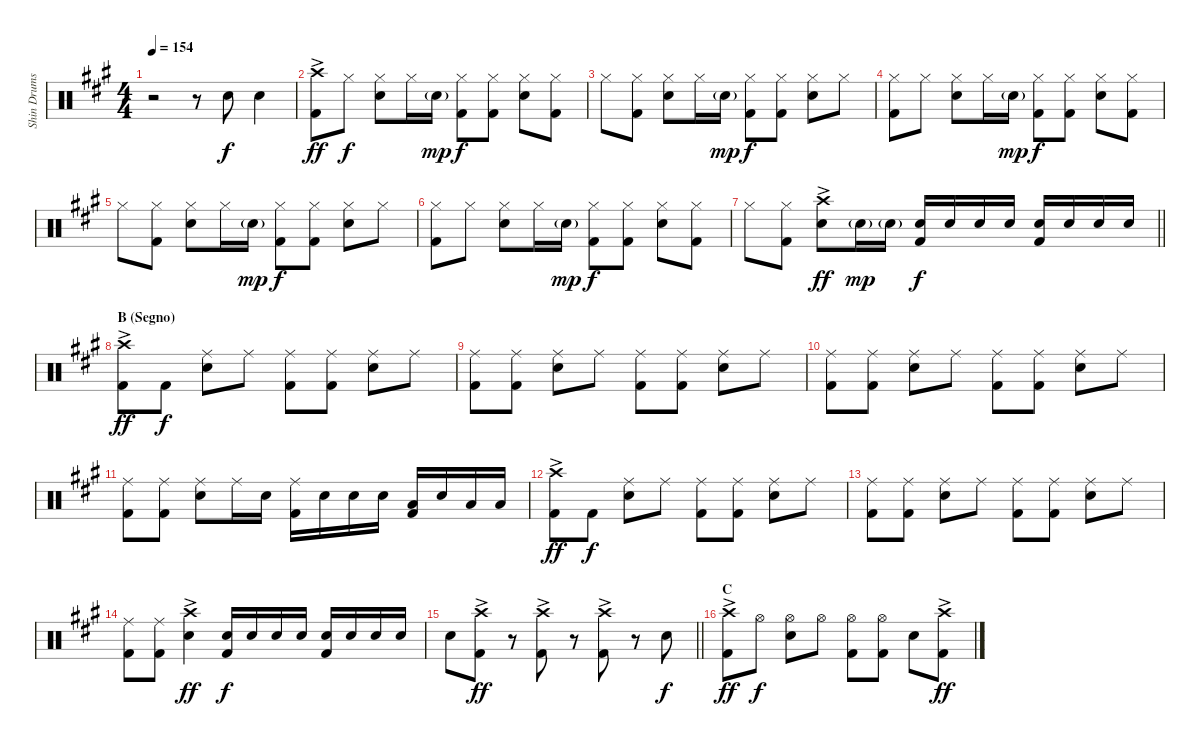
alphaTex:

\track ("Shin Drums" "Shin Drums") {instrument percussion}
\staff {score}
\articulation defaults
\ts (4 4)
\tempo 154
\clef neutral
\ks a
r.2{dy ff} r.8 "Snare (hit) 2".8{dy f} "Snare (hit) 2".4 |
("Crash high (hit)"{ac} "Kick (hit) 2").8{dy ff} "Hi-Hat (closed)".8{dy f} ("Hi-Hat (closed)" "Snare (hit) 2").8 "Hi-Hat (closed)".16 "Snare (hit) 2"{g}.16{dy mp} ("Hi-Hat (closed)" "Kick (hit) 2").8{dy f} ("Hi-Hat (closed)" "Kick (hit) 2").8 ("Hi-Hat (closed)" "Snare (hit) 2").8 ("Hi-Hat (closed)" "Kick (hit) 2").8 |
"Hi-Hat (closed)".8 ("Hi-Hat (closed)" "Kick (hit) 2").8 ("Hi-Hat (closed)" "Snare (hit) 2").8 "Hi-Hat (closed)".16 "Snare (hit) 2"{g}.16{dy mp} ("Hi-Hat (closed)" "Kick (hit) 2").8{dy f} ("Hi-Hat (closed)" "Kick (hit) 2").8 ("Hi-Hat (closed)" "Snare (hit) 2").8 "Hi-Hat (closed)".8 |
("Hi-Hat (closed)" "Kick (hit) 2").8 "Hi-Hat (closed)".8 ("Hi-Hat (closed)" "Snare (hit) 2").8 "Hi-Hat (closed)".16 "Snare (hit) 2"{g}.16{dy mp} ("Hi-Hat (closed)" "Kick (hit) 2").8{dy f} ("Hi-Hat (closed)" "Kick (hit) 2").8 ("Hi-Hat (closed)" "Snare (hit) 2").8 ("Hi-Hat (closed)" "Kick (hit) 2").8 |
"Hi-Hat (closed)".8 ("Hi-Hat (closed)" "Kick (hit) 2").8 ("Hi-Hat (closed)" "Snare (hit) 2").8 "Hi-Hat (closed)".16 "Snare (hit) 2"{g}.16{dy mp} ("Hi-Hat (closed)" "Kick (hit) 2").8{dy f} ("Hi-Hat (closed)" "Kick (hit) 2").8 ("Hi-Hat (closed)" "Snare (hit) 2").8 "Hi-Hat (closed)".8 |
("Hi-Hat (closed)" "Kick (hit) 2").8 "Hi-Hat (closed)".8 ("Hi-Hat (closed)" "Snare (hit) 2").8 "Hi-Hat (closed)".16 "Snare (hit) 2"{g}.16{dy mp} ("Hi-Hat (closed)" "Kick (hit) 2").8{dy f} ("Hi-Hat (closed)" "Kick (hit) 2").8 ("Hi-Hat (closed)" "Snare (hit) 2").8 ("Hi-Hat (closed)" "Kick (hit) 2").8 |
\barLineRight lightlight "Hi-Hat (closed)".8
("Hi-Hat (closed)" "Kick (hit) 2").8 ("Crash high (hit)"{ac} "Snare (hit) 2").8{dy ff} "Snare (hit) 2"{g}.16{dy mp} "Snare (hit) 2"{g}.16 ("Snare (hit) 2" "Kick (hit) 2").16{dy f} "Snare (hit) 2".16 "Snare (hit) 2".16 "Snare (hit) 2".16 ("Snare (hit) 2" "Kick (hit) 2").16 "Snare (hit) 2".16 "Snare (hit) 2".16 "Snare (hit) 2".16 |
\section ("" "B (Segno)")
("Crash high (hit)"{ac} "Kick (hit) 2").8{dy ff} "Kick (hit) 2".8{dy f} ("Ride (middle)" "Snare (hit) 2").8 "Ride (middle)".8 ("Ride (middle)" "Kick (hit) 2").8 ("Ride (middle)" "Kick (hit) 2").8 ("Ride (middle)" "Snare (hit) 2").8 "Ride (middle)".8 |
("Ride (middle)" "Kick (hit) 2").8 ("Ride (middle)" "Kick (hit) 2").8 ("Ride (middle)" "Snare (hit) 2").8 "Ride (middle)".8 ("Ride (middle)" "Kick (hit) 2").8 ("Ride (middle)" "Kick (hit) 2").8 ("Ride (middle)" "Snare (hit) 2").8 "Ride (middle)".8 |
("Ride (middle)" "Kick (hit) 2").8 ("Ride (middle)" "Kick (hit) 2").8 ("Ride (middle)" "Snare (hit) 2").8 "Ride (middle)".8 ("Ride (middle)" "Kick (hit) 2").8 ("Ride (middle)" "Kick (hit) 2").8 ("Ride (middle)" "Snare (hit) 2").8 "Ride (middle)".8 |
("Ride (middle)" "Kick (hit) 2").8 ("Ride (middle)" "Kick (hit) 2").8 ("Ride (middle)" "Snare (hit) 2").8 "Ride (middle)".16 "Snare (hit) 2".16 ("Ride (middle)" "Kick (hit) 2").16 "Snare (hit) 2".16 "Snare (hit) 2".16 "Snare (hit) 2".16 ("Low Tom (hit)" "Kick (hit) 2").16 "Snare (hit) 2".16 "Low Tom (hit)".16 "Low Tom (hit)".16 |
("Crash high (hit)"{ac} "Kick (hit) 2").8{dy ff} "Kick (hit) 2".8{dy f} ("Ride (middle)" "Snare (hit) 2").8 "Ride (middle)".8 ("Ride (middle)" "Kick (hit) 2").8 ("Ride (middle)" "Kick (hit) 2").8 ("Ride (middle)" "Snare (hit) 2").8 "Ride (middle)".8 |
("Ride (middle)" "Kick (hit) 2").8 ("Ride (middle)" "Kick (hit) 2").8 ("Ride (middle)" "Snare (hit) 2").8 "Ride (middle)".8 ("Ride (middle)" "Kick (hit) 2").8 ("Ride (middle)" "Kick (hit) 2").8 ("Ride (middle)" "Snare (hit) 2").8 "Ride (middle)".8 |
("Ride (middle)" "Kick (hit) 2").8 ("Ride (middle)" "Kick (hit) 2").8 ("Crash high (hit)"{ac} "Snare (hit) 2").4{dy ff} ("Snare (hit) 2" "Kick (hit) 2").16{dy f} "Snare (hit) 2".16 "Snare (hit) 2".16 "Snare (hit) 2".16 ("Snare (hit) 2" "Kick (hit) 2").16 "Snare (hit) 2".16 "Snare (hit) 2".16 "Snare (hit) 2".16 |
\barLineRight lightlight "Snare (hit) 2".8
("Crash high (hit)"{ac} "Kick (hit) 2").8{dy ff} r.8 ("Crash high (hit)"{ac} "Kick (hit) 2").8 r.8 ("Crash high (hit)"{ac} "Kick (hit) 2").8 r.8 "Snare (hit) 2".8{dy f} |
\section ("" "C")
("Crash high (hit)"{ac} "Kick (hit) 2").8{dy ff} "Hi-Hat (open)".8{dy f} ("Hi-Hat (open)" "Snare (hit) 2").8 "Hi-Hat (open)".8 ("Hi-Hat (open)" "Kick (hit) 2").8 ("Hi-Hat (open)" "Kick (hit) 2").8 "Snare (hit) 2".8 ("Crash high (hit)"{ac} "Kick (hit) 2").8{dy ff}
